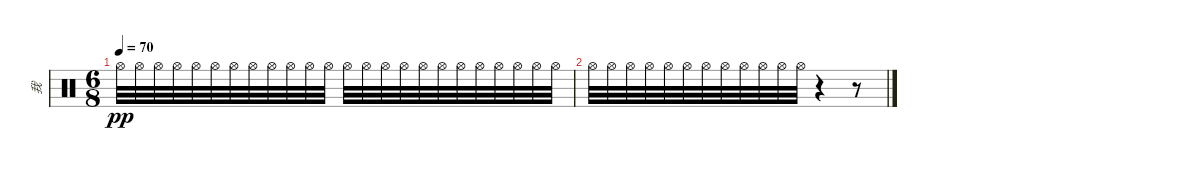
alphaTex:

\track ("我" "我") {instrument percussion}
\staff {score}
\articulation defaults
\ts (6 8)
\tempo 70
\clef neutral
\ks c "Hi-Hat (open)".32{dy pp} "Hi-Hat (open)".32 "Hi-Hat (open)".32 "Hi-Hat (open)".32 "Hi-Hat (open)".32 "Hi-Hat (open)".32 "Hi-Hat (open)".32 "Hi-Hat (open)".32 "Hi-Hat (open)".32 "Hi-Hat (open)".32 "Hi-Hat (open)".32 "Hi-Hat (open)".32 "Hi-Hat (open)".32 "Hi-Hat (open)".32 "Hi-Hat (open)".32 "Hi-Hat (open)".32 "Hi-Hat (open)".32 "Hi-Hat (open)".32 "Hi-Hat (open)".32 "Hi-Hat (open)".32 "Hi-Hat (open)".32 "Hi-Hat (open)".32 "Hi-Hat (open)".32 "Hi-Hat (open)".32
|
"Hi-Hat (open)".32 "Hi-Hat (open)".32 "Hi-Hat (open)".32 "Hi-Hat (open)".32 "Hi-Hat (open)".32 "Hi-Hat (open)".32 "Hi-Hat (open)".32 "Hi-Hat (open)".32 "Hi-Hat (open)".32 "Hi-Hat (open)".32 "Hi-Hat (open)".32 "Hi-Hat (open)".32 r.4 r.8
